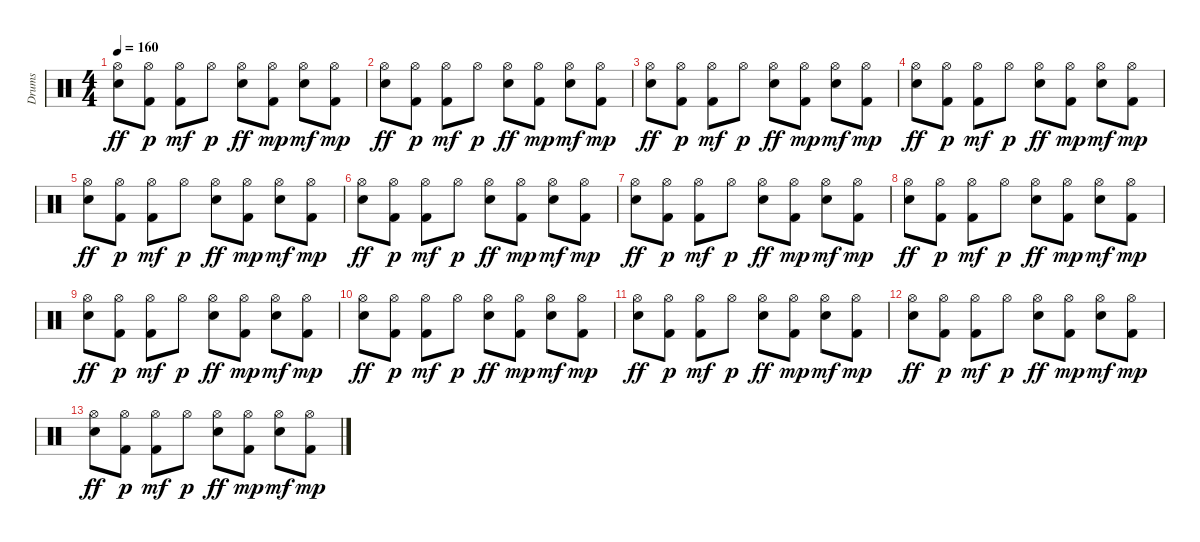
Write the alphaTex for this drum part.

\track ("Drums" "Drums") {instrument percussion}
\staff {score}
\articulation defaults
\ts (4 4)
\tempo 160
\clef neutral
\ks c
("Electric Snare (hit)" "Hi-Hat (open)").8{dy ff} ("Kick (hit) 2" "Hi-Hat (open)").8{dy p} ("Kick (hit) 2" "Hi-Hat (open)").8{dy mf} "Hi-Hat (open)".8{dy p} ("Electric Snare (hit)" "Hi-Hat (open)").8{dy ff} ("Kick (hit) 2" "Hi-Hat (open)").8{dy mp} ("Electric Snare (hit)" "Hi-Hat (open)").8{dy mf} ("Kick (hit) 2" "Hi-Hat (open)").8{dy mp} |
("Electric Snare (hit)" "Hi-Hat (open)").8{dy ff} ("Kick (hit) 2" "Hi-Hat (open)").8{dy p} ("Kick (hit) 2" "Hi-Hat (open)").8{dy mf} "Hi-Hat (open)".8{dy p} ("Electric Snare (hit)" "Hi-Hat (open)").8{dy ff} ("Kick (hit) 2" "Hi-Hat (open)").8{dy mp} ("Electric Snare (hit)" "Hi-Hat (open)").8{dy mf} ("Kick (hit) 2" "Hi-Hat (open)").8{dy mp} |
("Electric Snare (hit)" "Hi-Hat (open)").8{dy ff} ("Kick (hit) 2" "Hi-Hat (open)").8{dy p} ("Kick (hit) 2" "Hi-Hat (open)").8{dy mf} "Hi-Hat (open)".8{dy p} ("Electric Snare (hit)" "Hi-Hat (open)").8{dy ff} ("Kick (hit) 2" "Hi-Hat (open)").8{dy mp} ("Electric Snare (hit)" "Hi-Hat (open)").8{dy mf} ("Kick (hit) 2" "Hi-Hat (open)").8{dy mp} |
("Electric Snare (hit)" "Hi-Hat (open)").8{dy ff} ("Kick (hit) 2" "Hi-Hat (open)").8{dy p} ("Kick (hit) 2" "Hi-Hat (open)").8{dy mf} "Hi-Hat (open)".8{dy p} ("Electric Snare (hit)" "Hi-Hat (open)").8{dy ff} ("Kick (hit) 2" "Hi-Hat (open)").8{dy mp} ("Electric Snare (hit)" "Hi-Hat (open)").8{dy mf} ("Kick (hit) 2" "Hi-Hat (open)").8{dy mp} |
("Electric Snare (hit)" "Hi-Hat (open)").8{dy ff} ("Kick (hit) 2" "Hi-Hat (open)").8{dy p} ("Kick (hit) 2" "Hi-Hat (open)").8{dy mf} "Hi-Hat (open)".8{dy p} ("Electric Snare (hit)" "Hi-Hat (open)").8{dy ff} ("Kick (hit) 2" "Hi-Hat (open)").8{dy mp} ("Electric Snare (hit)" "Hi-Hat (open)").8{dy mf} ("Kick (hit) 2" "Hi-Hat (open)").8{dy mp} |
("Electric Snare (hit)" "Hi-Hat (open)").8{dy ff} ("Kick (hit) 2" "Hi-Hat (open)").8{dy p} ("Kick (hit) 2" "Hi-Hat (open)").8{dy mf} "Hi-Hat (open)".8{dy p} ("Electric Snare (hit)" "Hi-Hat (open)").8{dy ff} ("Kick (hit) 2" "Hi-Hat (open)").8{dy mp} ("Electric Snare (hit)" "Hi-Hat (open)").8{dy mf} ("Kick (hit) 2" "Hi-Hat (open)").8{dy mp} |
("Electric Snare (hit)" "Hi-Hat (open)").8{dy ff} ("Kick (hit) 2" "Hi-Hat (open)").8{dy p} ("Kick (hit) 2" "Hi-Hat (open)").8{dy mf} "Hi-Hat (open)".8{dy p} ("Electric Snare (hit)" "Hi-Hat (open)").8{dy ff} ("Kick (hit) 2" "Hi-Hat (open)").8{dy mp} ("Electric Snare (hit)" "Hi-Hat (open)").8{dy mf} ("Kick (hit) 2" "Hi-Hat (open)").8{dy mp} |
("Electric Snare (hit)" "Hi-Hat (open)").8{dy ff} ("Kick (hit) 2" "Hi-Hat (open)").8{dy p} ("Kick (hit) 2" "Hi-Hat (open)").8{dy mf} "Hi-Hat (open)".8{dy p} ("Electric Snare (hit)" "Hi-Hat (open)").8{dy ff} ("Kick (hit) 2" "Hi-Hat (open)").8{dy mp} ("Electric Snare (hit)" "Hi-Hat (open)").8{dy mf} ("Kick (hit) 2" "Hi-Hat (open)").8{dy mp} |
("Electric Snare (hit)" "Hi-Hat (open)").8{dy ff} ("Kick (hit) 2" "Hi-Hat (open)").8{dy p} ("Kick (hit) 2" "Hi-Hat (open)").8{dy mf} "Hi-Hat (open)".8{dy p} ("Electric Snare (hit)" "Hi-Hat (open)").8{dy ff} ("Kick (hit) 2" "Hi-Hat (open)").8{dy mp} ("Electric Snare (hit)" "Hi-Hat (open)").8{dy mf} ("Kick (hit) 2" "Hi-Hat (open)").8{dy mp} |
("Electric Snare (hit)" "Hi-Hat (open)").8{dy ff} ("Kick (hit) 2" "Hi-Hat (open)").8{dy p} ("Kick (hit) 2" "Hi-Hat (open)").8{dy mf} "Hi-Hat (open)".8{dy p} ("Electric Snare (hit)" "Hi-Hat (open)").8{dy ff} ("Kick (hit) 2" "Hi-Hat (open)").8{dy mp} ("Electric Snare (hit)" "Hi-Hat (open)").8{dy mf} ("Kick (hit) 2" "Hi-Hat (open)").8{dy mp} |
("Electric Snare (hit)" "Hi-Hat (open)").8{dy ff} ("Kick (hit) 2" "Hi-Hat (open)").8{dy p} ("Kick (hit) 2" "Hi-Hat (open)").8{dy mf} "Hi-Hat (open)".8{dy p} ("Electric Snare (hit)" "Hi-Hat (open)").8{dy ff} ("Kick (hit) 2" "Hi-Hat (open)").8{dy mp} ("Electric Snare (hit)" "Hi-Hat (open)").8{dy mf} ("Kick (hit) 2" "Hi-Hat (open)").8{dy mp} |
("Electric Snare (hit)" "Hi-Hat (open)").8{dy ff} ("Kick (hit) 2" "Hi-Hat (open)").8{dy p} ("Kick (hit) 2" "Hi-Hat (open)").8{dy mf} "Hi-Hat (open)".8{dy p} ("Electric Snare (hit)" "Hi-Hat (open)").8{dy ff} ("Kick (hit) 2" "Hi-Hat (open)").8{dy mp} ("Electric Snare (hit)" "Hi-Hat (open)").8{dy mf} ("Kick (hit) 2" "Hi-Hat (open)").8{dy mp} |
("Electric Snare (hit)" "Hi-Hat (open)").8{dy ff} ("Kick (hit) 2" "Hi-Hat (open)").8{dy p} ("Kick (hit) 2" "Hi-Hat (open)").8{dy mf} "Hi-Hat (open)".8{dy p} ("Electric Snare (hit)" "Hi-Hat (open)").8{dy ff} ("Kick (hit) 2" "Hi-Hat (open)").8{dy mp} ("Electric Snare (hit)" "Hi-Hat (open)").8{dy mf} ("Kick (hit) 2" "Hi-Hat (open)").8{dy mp}
